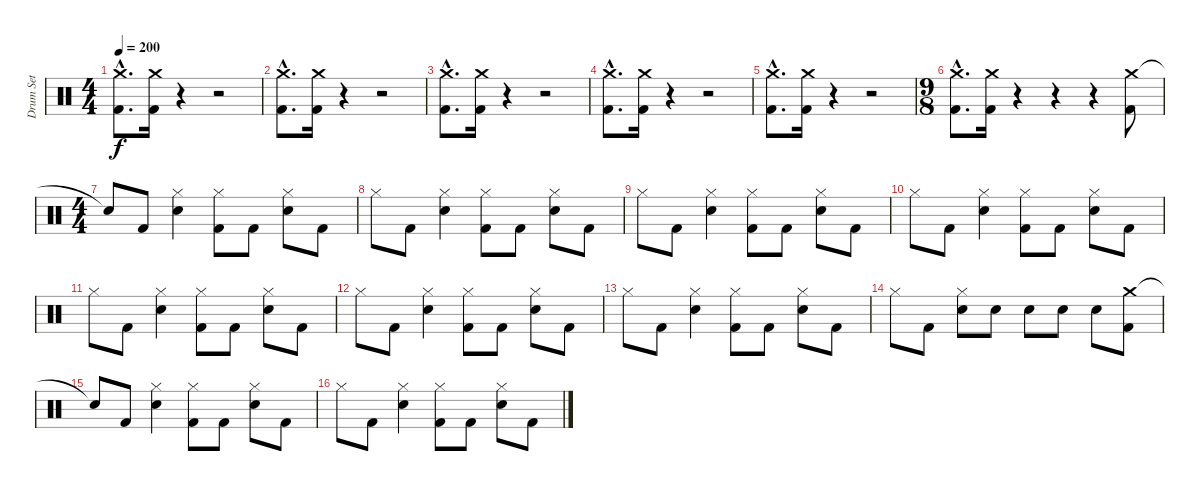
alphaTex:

\track ("Drum Set" "Drum Set") {instrument percussion}
\staff {score}
\articulation defaults
\ts (4 4)
\tempo 200
\clef neutral
\ks c
("Crash medium (hit)"{hac} "Kick (hit) 2"{hac}).8{d dy f} ("Crash medium (hit)" "Kick (hit) 2").16 r.4 r.2 |
("Crash medium (hit)"{hac} "Kick (hit) 2"{hac}).8{d} ("Crash medium (hit)" "Kick (hit) 2").16 r.4 r.2 |
("Crash medium (hit)"{hac} "Kick (hit) 2"{hac}).8{d} ("Crash medium (hit)" "Kick (hit) 2").16 r.4 r.2 |
("Crash medium (hit)"{hac} "Kick (hit) 2"{hac}).8{d} ("Crash medium (hit)" "Kick (hit) 2").16 r.4 r.2 |
("Crash medium (hit)"{hac} "Kick (hit) 2"{hac}).8{d} ("Crash medium (hit)" "Kick (hit) 2").16 r.4 r.2 |
\ts (9 8)
("Crash medium (hit)"{hac} "Kick (hit) 2"{hac}).8{d} ("Crash medium (hit)" "Kick (hit) 2").16 r.4 r.4 r.4 ("Crash medium (hit)" "Kick (hit) 2").8 |
\ts (4 4)
"Snare (hit)"{t}.8 "Kick (hit) 2".8 ("Hi-Hat (closed)" "Snare (hit) 2").4 ("Hi-Hat (closed)" "Kick (hit) 2").8 "Kick (hit) 2".8 ("Hi-Hat (closed)" "Snare (hit) 2").8 "Kick (hit) 2".8 |
"Hi-Hat (closed)".8 "Kick (hit) 2".8 ("Hi-Hat (closed)" "Snare (hit) 2").4 ("Hi-Hat (closed)" "Kick (hit) 2").8 "Kick (hit) 2".8 ("Hi-Hat (closed)" "Snare (hit) 2").8 "Kick (hit) 2".8 |
"Hi-Hat (closed)".8 "Kick (hit) 2".8 ("Hi-Hat (closed)" "Snare (hit) 2").4 ("Hi-Hat (closed)" "Kick (hit) 2").8 "Kick (hit) 2".8 ("Hi-Hat (closed)" "Snare (hit) 2").8 "Kick (hit) 2".8 |
"Hi-Hat (closed)".8 "Kick (hit) 2".8 ("Hi-Hat (closed)" "Snare (hit) 2").4 ("Hi-Hat (closed)" "Kick (hit) 2").8 "Kick (hit) 2".8 ("Hi-Hat (closed)" "Snare (hit) 2").8 "Kick (hit) 2".8 |
"Hi-Hat (closed)".8 "Kick (hit) 2".8 ("Hi-Hat (closed)" "Snare (hit) 2").4 ("Hi-Hat (closed)" "Kick (hit) 2").8 "Kick (hit) 2".8 ("Hi-Hat (closed)" "Snare (hit) 2").8 "Kick (hit) 2".8 |
"Hi-Hat (closed)".8 "Kick (hit) 2".8 ("Hi-Hat (closed)" "Snare (hit) 2").4 ("Hi-Hat (closed)" "Kick (hit) 2").8 "Kick (hit) 2".8 ("Hi-Hat (closed)" "Snare (hit) 2").8 "Kick (hit) 2".8 |
"Hi-Hat (closed)".8 "Kick (hit) 2".8 ("Hi-Hat (closed)" "Snare (hit) 2").4 ("Hi-Hat (closed)" "Kick (hit) 2").8 "Kick (hit) 2".8 ("Hi-Hat (closed)" "Snare (hit) 2").8 "Kick (hit) 2".8 |
"Hi-Hat (closed)".8 "Kick (hit) 2".8 ("Hi-Hat (closed)" "Snare (hit) 2").8 "Snare (hit) 2".8 "Snare (hit) 2".8 "Snare (hit) 2".8 "Snare (hit) 2".8 ("Crash medium (hit)" "Kick (hit) 2").8 |
"Snare (hit)"{t}.8 "Kick (hit) 2".8 ("Hi-Hat (closed)" "Snare (hit) 2").4 ("Hi-Hat (closed)" "Kick (hit) 2").8 "Kick (hit) 2".8 ("Hi-Hat (closed)" "Snare (hit) 2").8 "Kick (hit) 2".8 |
"Hi-Hat (closed)".8 "Kick (hit) 2".8 ("Hi-Hat (closed)" "Snare (hit) 2").4 ("Hi-Hat (closed)" "Kick (hit) 2").8 "Kick (hit) 2".8 ("Hi-Hat (closed)" "Snare (hit) 2").8 "Kick (hit) 2".8
